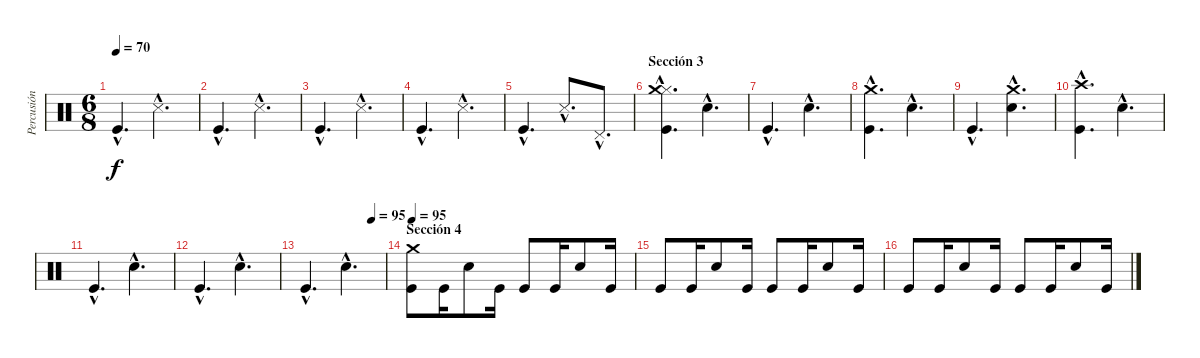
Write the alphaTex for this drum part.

\track ("Percusión" "Percusión") {instrument percussion}
\staff {score}
\articulation defaults
\ts (6 8)
\tempo 70
\clef neutral
\ks c "Kick (hit)"{hac}.4{d dy f} "Snare (side stick) 3"{hac}.4{d}
|
"Kick (hit)"{hac}.4{d} "Snare (side stick) 3"{hac}.4{d} |
"Kick (hit)"{hac}.4{d} "Snare (side stick) 3"{hac}.4{d} |
"Kick (hit)"{hac}.4{d} "Snare (side stick) 3"{hac}.4{d} |
"Kick (hit)"{hac}.4{d} "Snare (side stick) 3"{hac}.8{d} "Pedal Hi-Hat (hit)"{hac}.8{d} |
\section ("" "Sección 3")
("Hi-Hat (closed)"{hac} "Crash medium (hit)"{hac} "Kick (hit)"{hac}).4{d} "Electric Snare (hit)"{hac}.4{d} |
"Kick (hit)"{hac}.4{d} "Electric Snare (hit)"{hac}.4{d} |
("Crash medium (hit)"{hac} "Kick (hit)"{hac}).4{d} "Electric Snare (hit)"{hac}.4{d} |
"Kick (hit)"{hac}.4{d} ("Crash medium (hit)"{hac} "Electric Snare (hit)"{hac}).4{d} |
("Crash high (hit)"{hac} "Kick (hit)"{hac}).4{d} "Electric Snare (hit)"{hac}.4{d} |
"Kick (hit)"{hac}.4{d} "Electric Snare (hit)"{hac}.4{d} |
"Kick (hit)"{hac}.4{d} "Electric Snare (hit)"{hac}.4{d} |
\tempo (95 0.8333333333333334)
"Kick (hit)"{hac}.4{d} "Electric Snare (hit)"{hac}.4{d} |
\section ("" "Sección 4")
\tempo 95
("Crash medium (hit)" "Kick (hit)").8 "Kick (hit)".16 "Electric Snare (hit)".8 "Kick (hit)".16 "Kick (hit)".8 "Kick (hit)".16 "Electric Snare (hit)".8 "Kick (hit)".16 |
"Kick (hit)".8 "Kick (hit)".16 "Electric Snare (hit)".8 "Kick (hit)".16 "Kick (hit)".8 "Kick (hit)".16 "Electric Snare (hit)".8 "Kick (hit)".16 |
"Kick (hit)".8 "Kick (hit)".16 "Electric Snare (hit)".8 "Kick (hit)".16 "Kick (hit)".8 "Kick (hit)".16 "Electric Snare (hit)".8 "Kick (hit)".16
